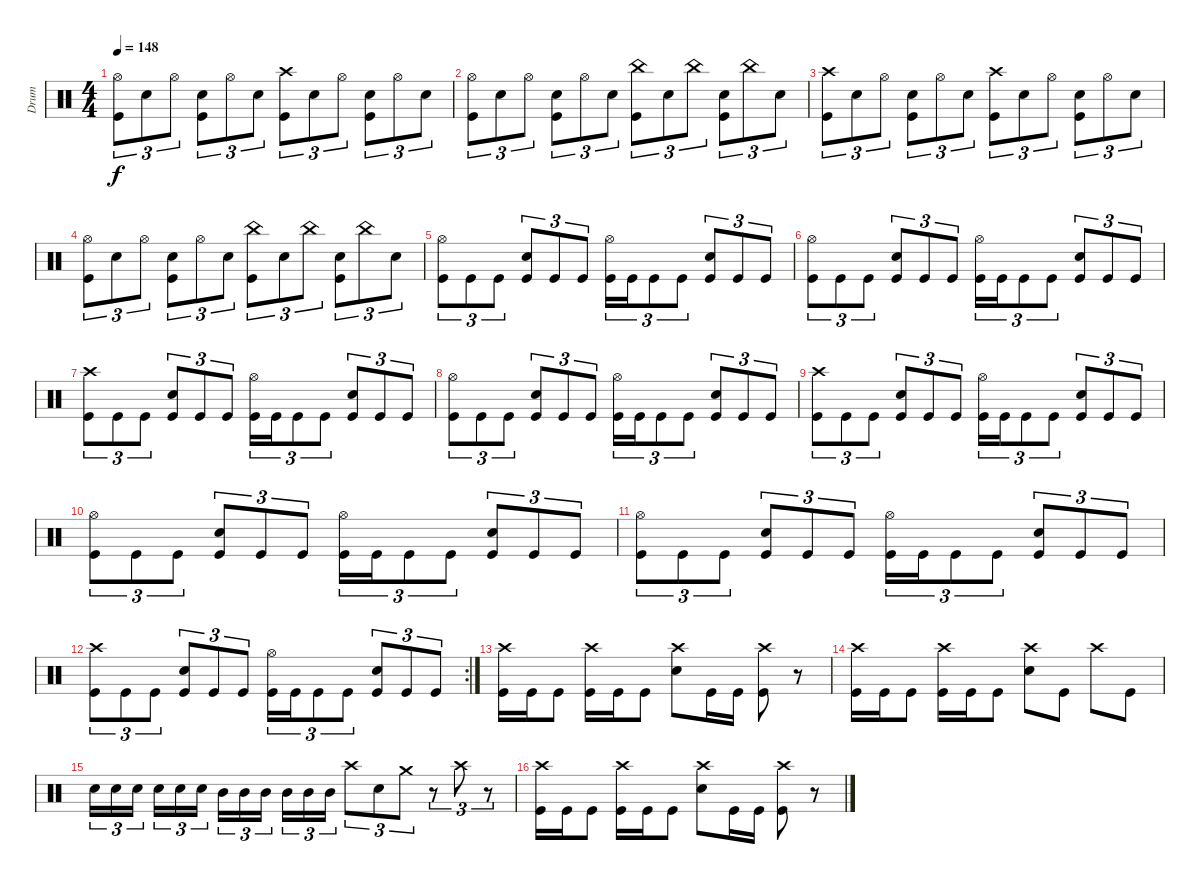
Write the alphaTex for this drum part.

\track ("Drum" "Drum") {instrument percussion}
\staff {score}
\articulation defaults
\ts (4 4)
\tempo 148
\clef neutral
\ks c
("Hi-Hat (open)" "Kick (hit)").8{tu (3 2) dy f} "Snare (hit) 2".8{tu (3 2)} "Hi-Hat (open)".8{tu (3 2)} ("Snare (hit) 2" "Kick (hit)").8{tu (3 2)} "Hi-Hat (open)".8{tu (3 2)} "Snare (hit) 2".8{tu (3 2)} ("Crash high (hit)" "Kick (hit)").8{tu (3 2)} "Snare (hit) 2".8{tu (3 2)} "Hi-Hat (open)".8{tu (3 2)} ("Snare (hit) 2" "Kick (hit)").8{tu (3 2)} "Hi-Hat (open)".8{tu (3 2)} "Snare (hit) 2".8{tu (3 2)} |
("Hi-Hat (open)" "Kick (hit)").8{tu (3 2)} "Snare (hit) 2".8{tu (3 2)} "Hi-Hat (open)".8{tu (3 2)} ("Snare (hit) 2" "Kick (hit)").8{tu (3 2)} "Hi-Hat (open)".8{tu (3 2)} "Snare (hit) 2".8{tu (3 2)} ("China (hit)" "Kick (hit)").8{tu (3 2)} "Snare (hit) 2".8{tu (3 2)} "China (hit)".8{tu (3 2)} ("Snare (hit) 2" "Kick (hit)").8{tu (3 2)} "China (hit)".8{tu (3 2)} "Snare (hit) 2".8{tu (3 2)} |
("Crash high (hit)" "Kick (hit)").8{tu (3 2)} "Snare (hit) 2".8{tu (3 2)} "Hi-Hat (open)".8{tu (3 2)} ("Snare (hit) 2" "Kick (hit)").8{tu (3 2)} "Hi-Hat (open)".8{tu (3 2)} "Snare (hit) 2".8{tu (3 2)} ("Crash high (hit)" "Kick (hit)").8{tu (3 2)} "Snare (hit) 2".8{tu (3 2)} "Hi-Hat (open)".8{tu (3 2)} ("Snare (hit) 2" "Kick (hit)").8{tu (3 2)} "Hi-Hat (open)".8{tu (3 2)} "Snare (hit) 2".8{tu (3 2)} |
("Hi-Hat (open)" "Kick (hit)").8{tu (3 2)} "Snare (hit) 2".8{tu (3 2)} "Hi-Hat (open)".8{tu (3 2)} ("Snare (hit) 2" "Kick (hit)").8{tu (3 2)} "Hi-Hat (open)".8{tu (3 2)} "Snare (hit) 2".8{tu (3 2)} ("China (hit)" "Kick (hit)").8{tu (3 2)} "Snare (hit) 2".8{tu (3 2)} "China (hit)".8{tu (3 2)} ("Snare (hit) 2" "Kick (hit)").8{tu (3 2)} "China (hit)".8{tu (3 2)} "Snare (hit) 2".8{tu (3 2)} |
("Hi-Hat (open)" "Kick (hit)").8{tu (3 2)} "Kick (hit)".8{tu (3 2)} "Kick (hit)".8{tu (3 2)} ("Snare (hit) 2" "Kick (hit)").8{tu (3 2)} "Kick (hit)".8{tu (3 2)} "Kick (hit)".8{tu (3 2)} ("Hi-Hat (open)" "Kick (hit)").16{tu (3 2)} "Kick (hit)".16{tu (3 2)} "Kick (hit)".8{tu (3 2)} "Kick (hit)".8{tu (3 2)} ("Snare (hit) 2" "Kick (hit)").8{tu (3 2)} "Kick (hit)".8{tu (3 2)} "Kick (hit)".8{tu (3 2)} |
("Hi-Hat (open)" "Kick (hit)").8{tu (3 2)} "Kick (hit)".8{tu (3 2)} "Kick (hit)".8{tu (3 2)} ("Snare (hit) 2" "Kick (hit)").8{tu (3 2)} "Kick (hit)".8{tu (3 2)} "Kick (hit)".8{tu (3 2)} ("Hi-Hat (open)" "Kick (hit)").16{tu (3 2)} "Kick (hit)".16{tu (3 2)} "Kick (hit)".8{tu (3 2)} "Kick (hit)".8{tu (3 2)} ("Snare (hit) 2" "Kick (hit)").8{tu (3 2)} "Kick (hit)".8{tu (3 2)} "Kick (hit)".8{tu (3 2)} |
("Crash high (hit)" "Kick (hit)").8{tu (3 2)} "Kick (hit)".8{tu (3 2)} "Kick (hit)".8{tu (3 2)} ("Snare (hit) 2" "Kick (hit)").8{tu (3 2)} "Kick (hit)".8{tu (3 2)} "Kick (hit)".8{tu (3 2)} ("Hi-Hat (open)" "Kick (hit)").16{tu (3 2)} "Kick (hit)".16{tu (3 2)} "Kick (hit)".8{tu (3 2)} "Kick (hit)".8{tu (3 2)} ("Snare (hit) 2" "Kick (hit)").8{tu (3 2)} "Kick (hit)".8{tu (3 2)} "Kick (hit)".8{tu (3 2)} |
("Hi-Hat (open)" "Kick (hit)").8{tu (3 2)} "Kick (hit)".8{tu (3 2)} "Kick (hit)".8{tu (3 2)} ("Snare (hit) 2" "Kick (hit)").8{tu (3 2)} "Kick (hit)".8{tu (3 2)} "Kick (hit)".8{tu (3 2)} ("Hi-Hat (open)" "Kick (hit)").16{tu (3 2)} "Kick (hit)".16{tu (3 2)} "Kick (hit)".8{tu (3 2)} "Kick (hit)".8{tu (3 2)} ("Snare (hit) 2" "Kick (hit)").8{tu (3 2)} "Kick (hit)".8{tu (3 2)} "Kick (hit)".8{tu (3 2)} |
("Crash high (hit)" "Kick (hit)").8{tu (3 2)} "Kick (hit)".8{tu (3 2)} "Kick (hit)".8{tu (3 2)} ("Snare (hit) 2" "Kick (hit)").8{tu (3 2)} "Kick (hit)".8{tu (3 2)} "Kick (hit)".8{tu (3 2)} ("Hi-Hat (open)" "Kick (hit)").16{tu (3 2)} "Kick (hit)".16{tu (3 2)} "Kick (hit)".8{tu (3 2)} "Kick (hit)".8{tu (3 2)} ("Snare (hit) 2" "Kick (hit)").8{tu (3 2)} "Kick (hit)".8{tu (3 2)} "Kick (hit)".8{tu (3 2)} |
("Hi-Hat (open)" "Kick (hit)").8{tu (3 2)} "Kick (hit)".8{tu (3 2)} "Kick (hit)".8{tu (3 2)} ("Snare (hit) 2" "Kick (hit)").8{tu (3 2)} "Kick (hit)".8{tu (3 2)} "Kick (hit)".8{tu (3 2)} ("Hi-Hat (open)" "Kick (hit)").16{tu (3 2)} "Kick (hit)".16{tu (3 2)} "Kick (hit)".8{tu (3 2)} "Kick (hit)".8{tu (3 2)} ("Snare (hit) 2" "Kick (hit)").8{tu (3 2)} "Kick (hit)".8{tu (3 2)} "Kick (hit)".8{tu (3 2)} |
("Hi-Hat (open)" "Kick (hit)").8{tu (3 2)} "Kick (hit)".8{tu (3 2)} "Kick (hit)".8{tu (3 2)} ("Snare (hit) 2" "Kick (hit)").8{tu (3 2)} "Kick (hit)".8{tu (3 2)} "Kick (hit)".8{tu (3 2)} ("Hi-Hat (open)" "Kick (hit)").16{tu (3 2)} "Kick (hit)".16{tu (3 2)} "Kick (hit)".8{tu (3 2)} "Kick (hit)".8{tu (3 2)} ("Snare (hit) 2" "Kick (hit)").8{tu (3 2)} "Kick (hit)".8{tu (3 2)} "Kick (hit)".8{tu (3 2)} |
\rc 2
("Crash high (hit)" "Kick (hit)").8{tu (3 2)} "Kick (hit)".8{tu (3 2)} "Kick (hit)".8{tu (3 2)} ("Snare (hit) 2" "Kick (hit)").8{tu (3 2)} "Kick (hit)".8{tu (3 2)} "Kick (hit)".8{tu (3 2)} ("Hi-Hat (open)" "Kick (hit)").16{tu (3 2)} "Kick (hit)".16{tu (3 2)} "Kick (hit)".8{tu (3 2)} "Kick (hit)".8{tu (3 2)} ("Snare (hit) 2" "Kick (hit)").8{tu (3 2)} "Kick (hit)".8{tu (3 2)} "Kick (hit)".8{tu (3 2)} |
("Crash high (hit)" "Kick (hit)").16 "Kick (hit)".16 "Kick (hit)".8 ("Crash high (hit)" "Kick (hit)").16 "Kick (hit)".16 "Kick (hit)".8 ("Crash high (hit)" "Snare (hit) 2").8 "Kick (hit)".16 "Kick (hit)".16 ("Crash high (hit)" "Kick (hit)").8 r.8 |
("Crash high (hit)" "Kick (hit)").16 "Kick (hit)".16 "Kick (hit)".8 ("Crash high (hit)" "Kick (hit)").16 "Kick (hit)".16 "Kick (hit)".8 ("Crash high (hit)" "Snare (hit) 2").8 "Kick (hit)".8 "Crash high (hit)".8 "Kick (hit)".8 |
"Snare (hit) 2".16{tu (3 2)} "Snare (hit) 2".16{tu (3 2)} "Snare (hit) 2".16{tu (3 2) beam splitsecondary} "Snare (hit) 2".16{tu (3 2)} "Snare (hit) 2".16{tu (3 2)} "Snare (hit) 2".16{tu (3 2)} "Mid Tom (hit)".16{tu (3 2)} "Mid Tom (hit)".16{tu (3 2)} "Mid Tom (hit)".16{tu (3 2) beam splitsecondary} "Mid Tom (hit)".16{tu (3 2)} "Mid Tom (hit)".16{tu (3 2)} "Mid Tom (hit)".16{tu (3 2)} "Crash high (hit)".8{tu (3 2)} "Snare (hit) 2".8{tu (3 2)} "Crash medium (hit)".8{tu (3 2)} r.8{tu (3 2)} "Crash high (hit)".8{tu (3 2)} r.8{tu (3 2)} |
("Crash high (hit)" "Kick (hit)").16 "Kick (hit)".16 "Kick (hit)".8 ("Crash high (hit)" "Kick (hit)").16 "Kick (hit)".16 "Kick (hit)".8 ("Crash high (hit)" "Snare (hit) 2").8 "Kick (hit)".16 "Kick (hit)".16 ("Crash high (hit)" "Kick (hit)").8 r.8
